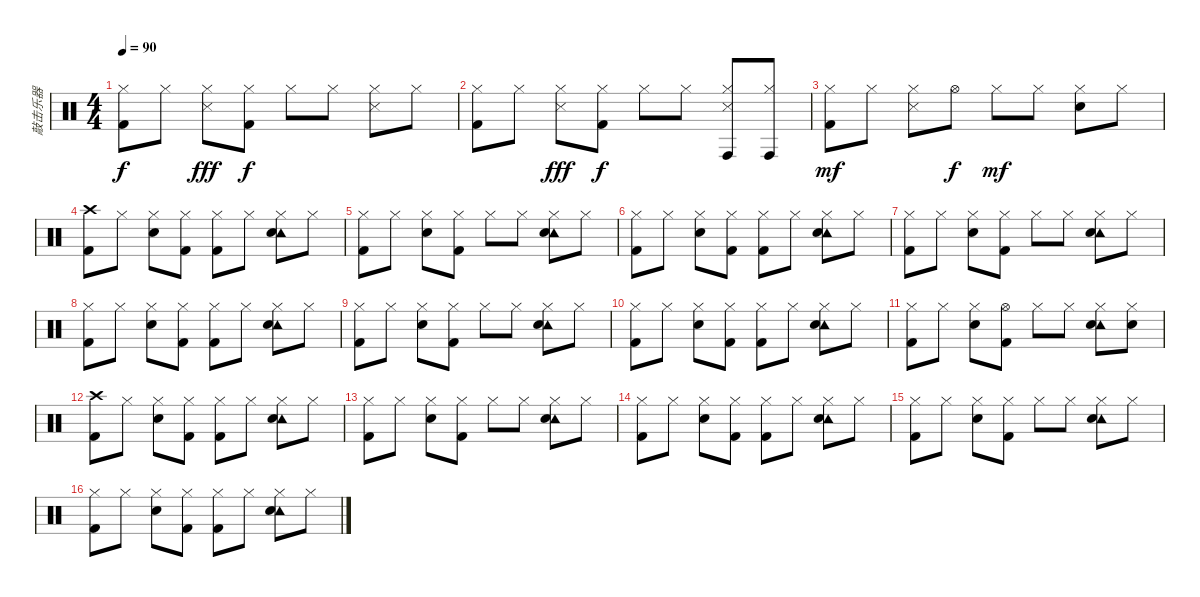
\track ("敲击乐器" "敲击乐器") {instrument percussion}
\staff {score}
\articulation defaults
\ts (4 4)
\tempo 90
\clef neutral
\ks c
("Hi-Hat (closed)" "Kick (hit) 2").8{dy f} "Hi-Hat (closed)".8 ("Hi-Hat (closed)" "Snare (side stick) 3").8{dy fff} ("Hi-Hat (closed)" "Kick (hit) 2").8{dy f} "Hi-Hat (closed)".8 "Hi-Hat (closed)".8 ("Hi-Hat (closed)" "Snare (side stick) 3").8 "Hi-Hat (closed)".8 |
("Hi-Hat (closed)" "Kick (hit) 2").8 "Hi-Hat (closed)".8 ("Hi-Hat (closed)" "Snare (side stick) 3").8{dy fff} ("Hi-Hat (closed)" "Kick (hit) 2").8{dy f} "Hi-Hat (closed)".8 "Hi-Hat (closed)".8 ("Hi-Hat (closed)" "Conga high (hit)" "Snare (side stick) 3").8 ("Hi-Hat (closed)" "Conga high (hit)").8 |
("Hi-Hat (closed)" "Kick (hit) 2").8{dy mf} "Hi-Hat (closed)".8 ("Hi-Hat (closed)" "Snare (side stick) 3").8 "Hi-Hat (open)".8{dy f} "Hi-Hat (closed)".8{dy mf} "Hi-Hat (closed)".8 ("Hi-Hat (closed)" "Snare (hit) 2").8 "Hi-Hat (closed)".8 |
("Crash high (hit)" "Kick (hit) 2").8 "Hi-Hat (closed)".8 ("Hi-Hat (closed)" "Snare (hit) 2").8 ("Hi-Hat (closed)" "Kick (hit) 2").8 ("Hi-Hat (closed)" "Kick (hit) 2").8 "Hi-Hat (closed)".8 ("Hi-Hat (closed)" "Tambourine (hit)" "Snare (hit) 2").8 "Hi-Hat (closed)".8 |
("Hi-Hat (closed)" "Kick (hit) 2").8 "Hi-Hat (closed)".8 ("Hi-Hat (closed)" "Snare (hit) 2").8 ("Hi-Hat (closed)" "Kick (hit) 2").8 "Hi-Hat (closed)".8 "Hi-Hat (closed)".8 ("Hi-Hat (closed)" "Tambourine (hit)" "Snare (hit) 2").8 "Hi-Hat (closed)".8 |
("Hi-Hat (closed)" "Kick (hit) 2").8 "Hi-Hat (closed)".8 ("Hi-Hat (closed)" "Snare (hit) 2").8 ("Hi-Hat (closed)" "Kick (hit) 2").8 ("Hi-Hat (closed)" "Kick (hit) 2").8 "Hi-Hat (closed)".8 ("Hi-Hat (closed)" "Tambourine (hit)" "Snare (hit) 2").8 "Hi-Hat (closed)".8 |
("Hi-Hat (closed)" "Kick (hit) 2").8 "Hi-Hat (closed)".8 ("Hi-Hat (closed)" "Snare (hit) 2").8 ("Hi-Hat (closed)" "Kick (hit) 2").8 "Hi-Hat (closed)".8 "Hi-Hat (closed)".8 ("Hi-Hat (closed)" "Tambourine (hit)" "Snare (hit) 2").8 "Hi-Hat (closed)".8 |
("Hi-Hat (closed)" "Kick (hit) 2").8 "Hi-Hat (closed)".8 ("Hi-Hat (closed)" "Snare (hit) 2").8 ("Hi-Hat (closed)" "Kick (hit) 2").8 ("Hi-Hat (closed)" "Kick (hit) 2").8 "Hi-Hat (closed)".8 ("Hi-Hat (closed)" "Tambourine (hit)" "Snare (hit) 2").8 "Hi-Hat (closed)".8 |
("Hi-Hat (closed)" "Kick (hit) 2").8 "Hi-Hat (closed)".8 ("Hi-Hat (closed)" "Snare (hit) 2").8 ("Hi-Hat (closed)" "Kick (hit) 2").8 "Hi-Hat (closed)".8 "Hi-Hat (closed)".8 ("Hi-Hat (closed)" "Tambourine (hit)" "Snare (hit) 2").8 "Hi-Hat (closed)".8 |
("Hi-Hat (closed)" "Kick (hit) 2").8 "Hi-Hat (closed)".8 ("Hi-Hat (closed)" "Snare (hit) 2").8 ("Hi-Hat (closed)" "Kick (hit) 2").8 ("Hi-Hat (closed)" "Kick (hit) 2").8 "Hi-Hat (closed)".8 ("Hi-Hat (closed)" "Tambourine (hit)" "Snare (hit) 2").8 "Hi-Hat (closed)".8 |
("Hi-Hat (closed)" "Kick (hit) 2").8 "Hi-Hat (closed)".8 ("Hi-Hat (closed)" "Snare (hit) 2").8 ("Hi-Hat (open)" "Kick (hit) 2").8 "Hi-Hat (closed)".8 "Hi-Hat (closed)".8 ("Hi-Hat (closed)" "Tambourine (hit)" "Snare (hit) 2").8 ("Hi-Hat (closed)" "Snare (hit) 2").8 |
("Crash high (hit)" "Kick (hit) 2").8 "Hi-Hat (closed)".8 ("Hi-Hat (closed)" "Snare (hit) 2").8 ("Hi-Hat (closed)" "Kick (hit) 2").8 ("Hi-Hat (closed)" "Kick (hit) 2").8 "Hi-Hat (closed)".8 ("Hi-Hat (closed)" "Tambourine (hit)" "Snare (hit) 2").8 "Hi-Hat (closed)".8 |
("Hi-Hat (closed)" "Kick (hit) 2").8 "Hi-Hat (closed)".8 ("Hi-Hat (closed)" "Snare (hit) 2").8 ("Hi-Hat (closed)" "Kick (hit) 2").8 "Hi-Hat (closed)".8 "Hi-Hat (closed)".8 ("Hi-Hat (closed)" "Tambourine (hit)" "Snare (hit) 2").8 "Hi-Hat (closed)".8 |
("Hi-Hat (closed)" "Kick (hit) 2").8 "Hi-Hat (closed)".8 ("Hi-Hat (closed)" "Snare (hit) 2").8 ("Hi-Hat (closed)" "Kick (hit) 2").8 ("Hi-Hat (closed)" "Kick (hit) 2").8 "Hi-Hat (closed)".8 ("Hi-Hat (closed)" "Tambourine (hit)" "Snare (hit) 2").8 "Hi-Hat (closed)".8 |
("Hi-Hat (closed)" "Kick (hit) 2").8 "Hi-Hat (closed)".8 ("Hi-Hat (closed)" "Snare (hit) 2").8 ("Hi-Hat (closed)" "Kick (hit) 2").8 "Hi-Hat (closed)".8 "Hi-Hat (closed)".8 ("Hi-Hat (closed)" "Tambourine (hit)" "Snare (hit) 2").8 "Hi-Hat (closed)".8 |
("Hi-Hat (closed)" "Kick (hit) 2").8 "Hi-Hat (closed)".8 ("Hi-Hat (closed)" "Snare (hit) 2").8 ("Hi-Hat (closed)" "Kick (hit) 2").8 ("Hi-Hat (closed)" "Kick (hit) 2").8 "Hi-Hat (closed)".8 ("Hi-Hat (closed)" "Tambourine (hit)" "Snare (hit) 2").8 "Hi-Hat (closed)".8
